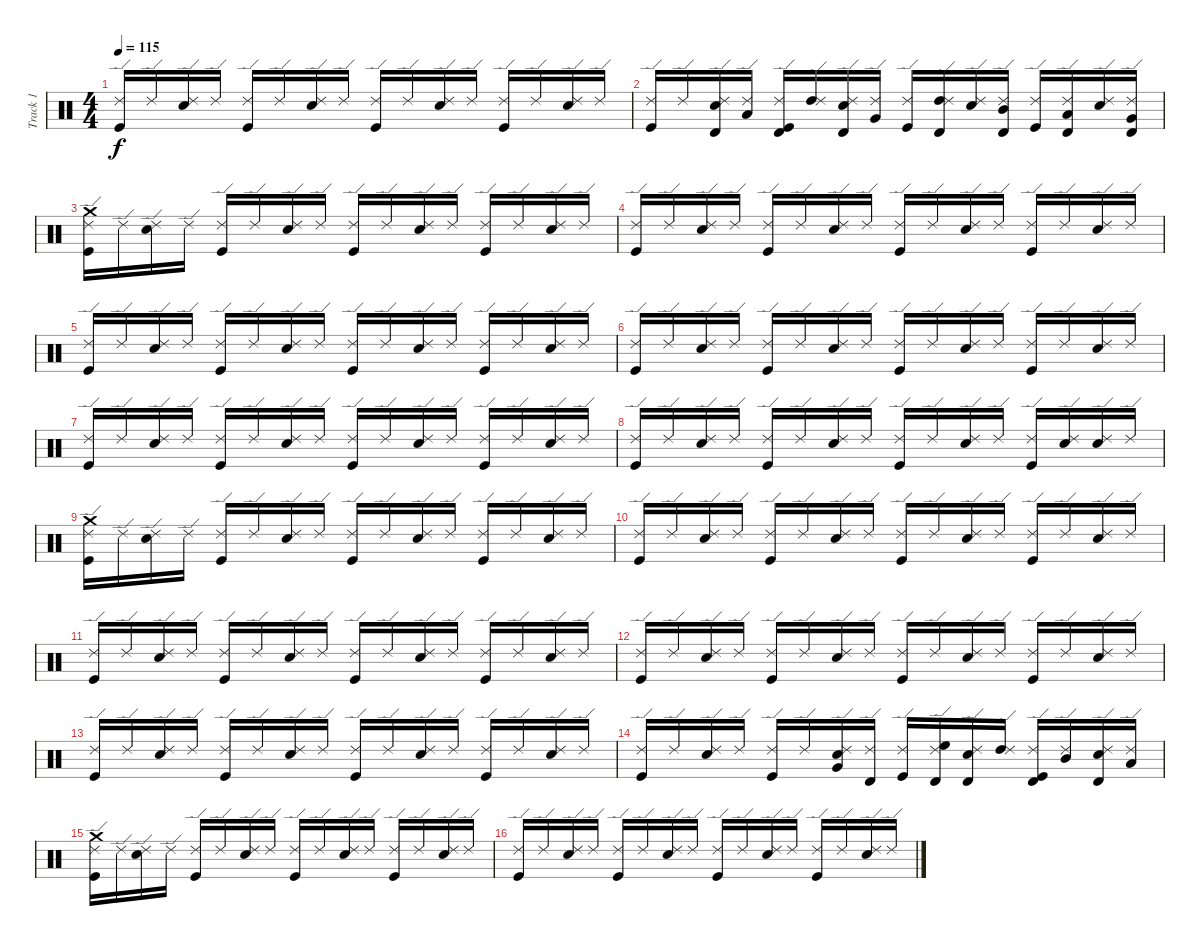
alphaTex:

\track ("Track 1" "Track 1") {instrument percussion}
\staff {score}
\articulation defaults
\ts (4 4)
\tempo 115
\clef neutral
\ks c
("Kick (hit)" "Ride (edge) 2").16{dy f} "Ride (edge) 2".16 ("Electric Snare (hit)" "Ride (edge) 2").16 "Ride (edge) 2".16 ("Kick (hit)" "Ride (edge) 2").16 "Ride (edge) 2".16 ("Electric Snare (hit)" "Ride (edge) 2").16 "Ride (edge) 2".16 ("Kick (hit)" "Ride (edge) 2").16 "Ride (edge) 2".16 ("Electric Snare (hit)" "Ride (edge) 2").16 "Ride (edge) 2".16 ("Kick (hit)" "Ride (edge) 2").16 "Ride (edge) 2".16 ("Electric Snare (hit)" "Ride (edge) 2").16 "Ride (edge) 2".16 |
("Kick (hit)" "Ride (edge) 2").16 "Ride (edge) 2".16 ("Electric Snare (hit)" "Ride (edge) 2" "Timbale high (hit)").16 ("Low Tom (hit)" "Ride (edge) 2").16 ("Kick (hit)" "Ride (edge) 2" "Timbale high (hit)").16 ("High Tom (hit)" "Ride (edge) 2").16 ("Electric Snare (hit)" "Ride (edge) 2" "Timbale high (hit)").16 ("Very Low Tom (hit)" "Ride (edge) 2").16 ("Kick (hit)" "Ride (edge) 2").16 ("High Tom (hit)" "Ride (edge) 2" "Timbale high (hit)").16 ("Electric Snare (hit)" "Ride (edge) 2").16 ("Mid Tom (hit)" "Ride (edge) 2" "Timbale high (hit)").16 ("Kick (hit)" "Ride (edge) 2").16 ("Low Tom (hit)" "Ride (edge) 2" "Timbale high (hit)").16 ("Electric Snare (hit)" "Ride (edge) 2").16 ("Very Low Tom (hit)" "Ride (edge) 2" "Timbale high (hit)").16 |
("Kick (hit)" "Crash medium (hit)" "Ride (edge) 2").16 "Ride (edge) 2".16 ("Electric Snare (hit)" "Ride (edge) 2").16 "Ride (edge) 2".16 ("Kick (hit)" "Ride (edge) 2").16 "Ride (edge) 2".16 ("Electric Snare (hit)" "Ride (edge) 2").16 "Ride (edge) 2".16 ("Kick (hit)" "Ride (edge) 2").16 "Ride (edge) 2".16 ("Electric Snare (hit)" "Ride (edge) 2").16 "Ride (edge) 2".16 ("Kick (hit)" "Ride (edge) 2").16 "Ride (edge) 2".16 ("Electric Snare (hit)" "Ride (edge) 2").16 "Ride (edge) 2".16 |
("Kick (hit)" "Ride (edge) 2").16 "Ride (edge) 2".16 ("Electric Snare (hit)" "Ride (edge) 2").16 "Ride (edge) 2".16 ("Kick (hit)" "Ride (edge) 2").16 "Ride (edge) 2".16 ("Electric Snare (hit)" "Ride (edge) 2").16 "Ride (edge) 2".16 ("Kick (hit)" "Ride (edge) 2").16 "Ride (edge) 2".16 ("Electric Snare (hit)" "Ride (edge) 2").16 "Ride (edge) 2".16 ("Kick (hit)" "Ride (edge) 2").16 "Ride (edge) 2".16 ("Electric Snare (hit)" "Ride (edge) 2").16 "Ride (edge) 2".16 |
("Kick (hit)" "Ride (edge) 2").16 "Ride (edge) 2".16 ("Electric Snare (hit)" "Ride (edge) 2").16 "Ride (edge) 2".16 ("Kick (hit)" "Ride (edge) 2").16 "Ride (edge) 2".16 ("Electric Snare (hit)" "Ride (edge) 2").16 "Ride (edge) 2".16 ("Kick (hit)" "Ride (edge) 2").16 "Ride (edge) 2".16 ("Electric Snare (hit)" "Ride (edge) 2").16 "Ride (edge) 2".16 ("Kick (hit)" "Ride (edge) 2").16 "Ride (edge) 2".16 ("Electric Snare (hit)" "Ride (edge) 2").16 "Ride (edge) 2".16 |
("Kick (hit)" "Ride (edge) 2").16 "Ride (edge) 2".16 ("Electric Snare (hit)" "Ride (edge) 2").16 "Ride (edge) 2".16 ("Kick (hit)" "Ride (edge) 2").16 "Ride (edge) 2".16 ("Electric Snare (hit)" "Ride (edge) 2").16 "Ride (edge) 2".16 ("Kick (hit)" "Ride (edge) 2").16 "Ride (edge) 2".16 ("Electric Snare (hit)" "Ride (edge) 2").16 "Ride (edge) 2".16 ("Kick (hit)" "Ride (edge) 2").16 "Ride (edge) 2".16 ("Electric Snare (hit)" "Ride (edge) 2").16 "Ride (edge) 2".16 |
("Kick (hit)" "Ride (edge) 2").16 "Ride (edge) 2".16 ("Electric Snare (hit)" "Ride (edge) 2").16 "Ride (edge) 2".16 ("Kick (hit)" "Ride (edge) 2").16 "Ride (edge) 2".16 ("Electric Snare (hit)" "Ride (edge) 2").16 "Ride (edge) 2".16 ("Kick (hit)" "Ride (edge) 2").16 "Ride (edge) 2".16 ("Electric Snare (hit)" "Ride (edge) 2").16 "Ride (edge) 2".16 ("Kick (hit)" "Ride (edge) 2").16 "Ride (edge) 2".16 ("Electric Snare (hit)" "Ride (edge) 2").16 "Ride (edge) 2".16 |
("Kick (hit)" "Ride (edge) 2").16 "Ride (edge) 2".16 ("Electric Snare (hit)" "Ride (edge) 2").16 "Ride (edge) 2".16 ("Kick (hit)" "Ride (edge) 2").16 "Ride (edge) 2".16 ("Electric Snare (hit)" "Ride (edge) 2").16 "Ride (edge) 2".16 ("Kick (hit)" "Ride (edge) 2").16 "Ride (edge) 2".16 ("Electric Snare (hit)" "Ride (edge) 2").16 "Ride (edge) 2".16 ("Kick (hit)" "Ride (edge) 2").16 ("Electric Snare (hit)" "Ride (edge) 2").16 ("Electric Snare (hit)" "Ride (edge) 2").16 "Ride (edge) 2".16 |
("Kick (hit)" "Crash medium (hit)" "Ride (edge) 2").16 "Ride (edge) 2".16 ("Electric Snare (hit)" "Ride (edge) 2").16 "Ride (edge) 2".16 ("Kick (hit)" "Ride (edge) 2").16 "Ride (edge) 2".16 ("Electric Snare (hit)" "Ride (edge) 2").16 "Ride (edge) 2".16 ("Kick (hit)" "Ride (edge) 2").16 "Ride (edge) 2".16 ("Electric Snare (hit)" "Ride (edge) 2").16 "Ride (edge) 2".16 ("Kick (hit)" "Ride (edge) 2").16 "Ride (edge) 2".16 ("Electric Snare (hit)" "Ride (edge) 2").16 "Ride (edge) 2".16 |
("Kick (hit)" "Ride (edge) 2").16 "Ride (edge) 2".16 ("Electric Snare (hit)" "Ride (edge) 2").16 "Ride (edge) 2".16 ("Kick (hit)" "Ride (edge) 2").16 "Ride (edge) 2".16 ("Electric Snare (hit)" "Ride (edge) 2").16 "Ride (edge) 2".16 ("Kick (hit)" "Ride (edge) 2").16 "Ride (edge) 2".16 ("Electric Snare (hit)" "Ride (edge) 2").16 "Ride (edge) 2".16 ("Kick (hit)" "Ride (edge) 2").16 "Ride (edge) 2".16 ("Electric Snare (hit)" "Ride (edge) 2").16 "Ride (edge) 2".16 |
("Kick (hit)" "Ride (edge) 2").16 "Ride (edge) 2".16 ("Electric Snare (hit)" "Ride (edge) 2").16 "Ride (edge) 2".16 ("Kick (hit)" "Ride (edge) 2").16 "Ride (edge) 2".16 ("Electric Snare (hit)" "Ride (edge) 2").16 "Ride (edge) 2".16 ("Kick (hit)" "Ride (edge) 2").16 "Ride (edge) 2".16 ("Electric Snare (hit)" "Ride (edge) 2").16 "Ride (edge) 2".16 ("Kick (hit)" "Ride (edge) 2").16 "Ride (edge) 2".16 ("Electric Snare (hit)" "Ride (edge) 2").16 "Ride (edge) 2".16 |
("Kick (hit)" "Ride (edge) 2").16 "Ride (edge) 2".16 ("Electric Snare (hit)" "Ride (edge) 2").16 "Ride (edge) 2".16 ("Kick (hit)" "Ride (edge) 2").16 "Ride (edge) 2".16 ("Electric Snare (hit)" "Ride (edge) 2").16 "Ride (edge) 2".16 ("Kick (hit)" "Ride (edge) 2").16 "Ride (edge) 2".16 ("Electric Snare (hit)" "Ride (edge) 2").16 "Ride (edge) 2".16 ("Kick (hit)" "Ride (edge) 2").16 "Ride (edge) 2".16 ("Electric Snare (hit)" "Ride (edge) 2").16 "Ride (edge) 2".16 |
("Kick (hit)" "Ride (edge) 2").16 "Ride (edge) 2".16 ("Electric Snare (hit)" "Ride (edge) 2").16 "Ride (edge) 2".16 ("Kick (hit)" "Ride (edge) 2").16 "Ride (edge) 2".16 ("Electric Snare (hit)" "Ride (edge) 2").16 "Ride (edge) 2".16 ("Kick (hit)" "Ride (edge) 2").16 "Ride (edge) 2".16 ("Electric Snare (hit)" "Ride (edge) 2").16 "Ride (edge) 2".16 ("Kick (hit)" "Ride (edge) 2").16 "Ride (edge) 2".16 ("Electric Snare (hit)" "Ride (edge) 2").16 "Ride (edge) 2".16 |
("Kick (hit)" "Ride (edge) 2").16 "Ride (edge) 2".16 ("Electric Snare (hit)" "Ride (edge) 2").16 "Ride (edge) 2".16 ("Kick (hit)" "Ride (edge) 2").16 "Ride (edge) 2".16 ("Electric Snare (hit)" "Very Low Tom (hit)" "Ride (edge) 2").16 ("Ride (edge) 2" "Timbale high (hit)").16 ("Kick (hit)" "Ride (edge) 2").16 ("High Floor Tom (hit)" "Ride (edge) 2" "Timbale high (hit)").16 ("Electric Snare (hit)" "Ride (edge) 2" "Timbale high (hit)").16 ("High Tom (hit)" "Ride (edge) 2").16 ("Kick (hit)" "Ride (edge) 2" "Timbale high (hit)").16 ("Mid Tom (hit)" "Ride (edge) 2").16 ("Electric Snare (hit)" "Ride (edge) 2" "Timbale high (hit)").16 ("Low Tom (hit)" "Ride (edge) 2").16 |
("Kick (hit)" "Crash medium (hit)" "Ride (edge) 2").16 "Ride (edge) 2".16 ("Electric Snare (hit)" "Ride (edge) 2").16 "Ride (edge) 2".16 ("Kick (hit)" "Ride (edge) 2").16 "Ride (edge) 2".16 ("Electric Snare (hit)" "Ride (edge) 2").16 "Ride (edge) 2".16 ("Kick (hit)" "Ride (edge) 2").16 "Ride (edge) 2".16 ("Electric Snare (hit)" "Ride (edge) 2").16 "Ride (edge) 2".16 ("Kick (hit)" "Ride (edge) 2").16 "Ride (edge) 2".16 ("Electric Snare (hit)" "Ride (edge) 2").16 "Ride (edge) 2".16 |
("Kick (hit)" "Ride (edge) 2").16 "Ride (edge) 2".16 ("Electric Snare (hit)" "Ride (edge) 2").16 "Ride (edge) 2".16 ("Kick (hit)" "Ride (edge) 2").16 "Ride (edge) 2".16 ("Electric Snare (hit)" "Ride (edge) 2").16 "Ride (edge) 2".16 ("Kick (hit)" "Ride (edge) 2").16 "Ride (edge) 2".16 ("Electric Snare (hit)" "Ride (edge) 2").16 "Ride (edge) 2".16 ("Kick (hit)" "Ride (edge) 2").16 "Ride (edge) 2".16 ("Electric Snare (hit)" "Ride (edge) 2").16 "Ride (edge) 2".16
